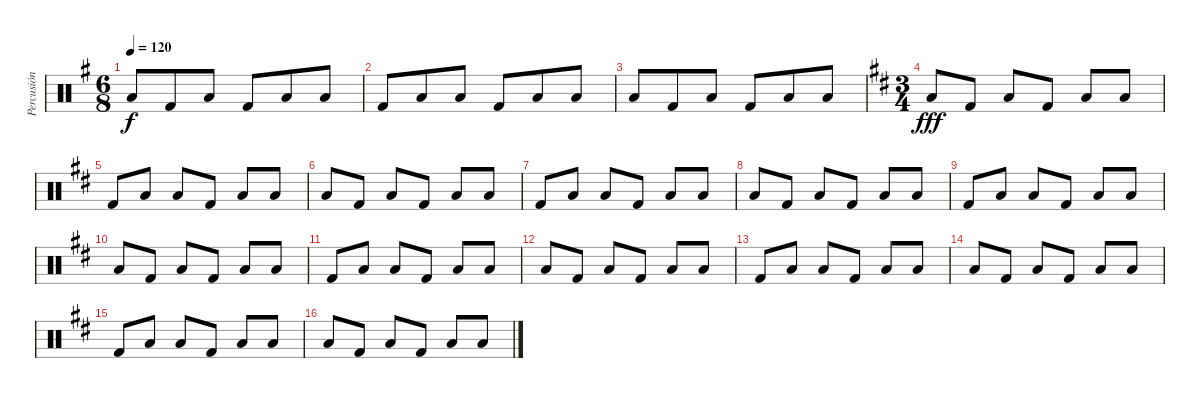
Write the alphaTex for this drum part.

\track ("Percusión" "Percusión") {instrument percussion}
\staff {score}
\articulation defaults
\ts (6 8)
\tempo 120
\clef neutral
\ks g "Low Tom (hit)".8{dy f} "Kick (hit) 2".8 "Low Tom (hit)".8 "Kick (hit) 2".8 "Low Tom (hit)".8 "Low Tom (hit)".8
|
"Kick (hit) 2".8 "Low Tom (hit)".8 "Low Tom (hit)".8 "Kick (hit) 2".8 "Low Tom (hit)".8 "Low Tom (hit)".8 |
"Low Tom (hit)".8 "Kick (hit) 2".8 "Low Tom (hit)".8 "Kick (hit) 2".8 "Low Tom (hit)".8 "Low Tom (hit)".8 |
\ts (3 4)
\ks d "Low Tom (hit)".8{dy fff} "Kick (hit) 2".8 "Low Tom (hit)".8 "Kick (hit) 2".8 "Low Tom (hit)".8 "Low Tom (hit)".8
|
"Kick (hit) 2".8 "Low Tom (hit)".8 "Low Tom (hit)".8 "Kick (hit) 2".8 "Low Tom (hit)".8 "Low Tom (hit)".8 |
"Low Tom (hit)".8 "Kick (hit) 2".8 "Low Tom (hit)".8 "Kick (hit) 2".8 "Low Tom (hit)".8 "Low Tom (hit)".8 |
"Kick (hit) 2".8 "Low Tom (hit)".8 "Low Tom (hit)".8 "Kick (hit) 2".8 "Low Tom (hit)".8 "Low Tom (hit)".8 |
"Low Tom (hit)".8 "Kick (hit) 2".8 "Low Tom (hit)".8 "Kick (hit) 2".8 "Low Tom (hit)".8 "Low Tom (hit)".8 |
"Kick (hit) 2".8 "Low Tom (hit)".8 "Low Tom (hit)".8 "Kick (hit) 2".8 "Low Tom (hit)".8 "Low Tom (hit)".8 |
"Low Tom (hit)".8 "Kick (hit) 2".8 "Low Tom (hit)".8 "Kick (hit) 2".8 "Low Tom (hit)".8 "Low Tom (hit)".8 |
"Kick (hit) 2".8 "Low Tom (hit)".8 "Low Tom (hit)".8 "Kick (hit) 2".8 "Low Tom (hit)".8 "Low Tom (hit)".8 |
"Low Tom (hit)".8 "Kick (hit) 2".8 "Low Tom (hit)".8 "Kick (hit) 2".8 "Low Tom (hit)".8 "Low Tom (hit)".8 |
"Kick (hit) 2".8 "Low Tom (hit)".8 "Low Tom (hit)".8 "Kick (hit) 2".8 "Low Tom (hit)".8 "Low Tom (hit)".8 |
"Low Tom (hit)".8 "Kick (hit) 2".8 "Low Tom (hit)".8 "Kick (hit) 2".8 "Low Tom (hit)".8 "Low Tom (hit)".8 |
"Kick (hit) 2".8 "Low Tom (hit)".8 "Low Tom (hit)".8 "Kick (hit) 2".8 "Low Tom (hit)".8 "Low Tom (hit)".8 |
"Low Tom (hit)".8 "Kick (hit) 2".8 "Low Tom (hit)".8 "Kick (hit) 2".8 "Low Tom (hit)".8 "Low Tom (hit)".8
